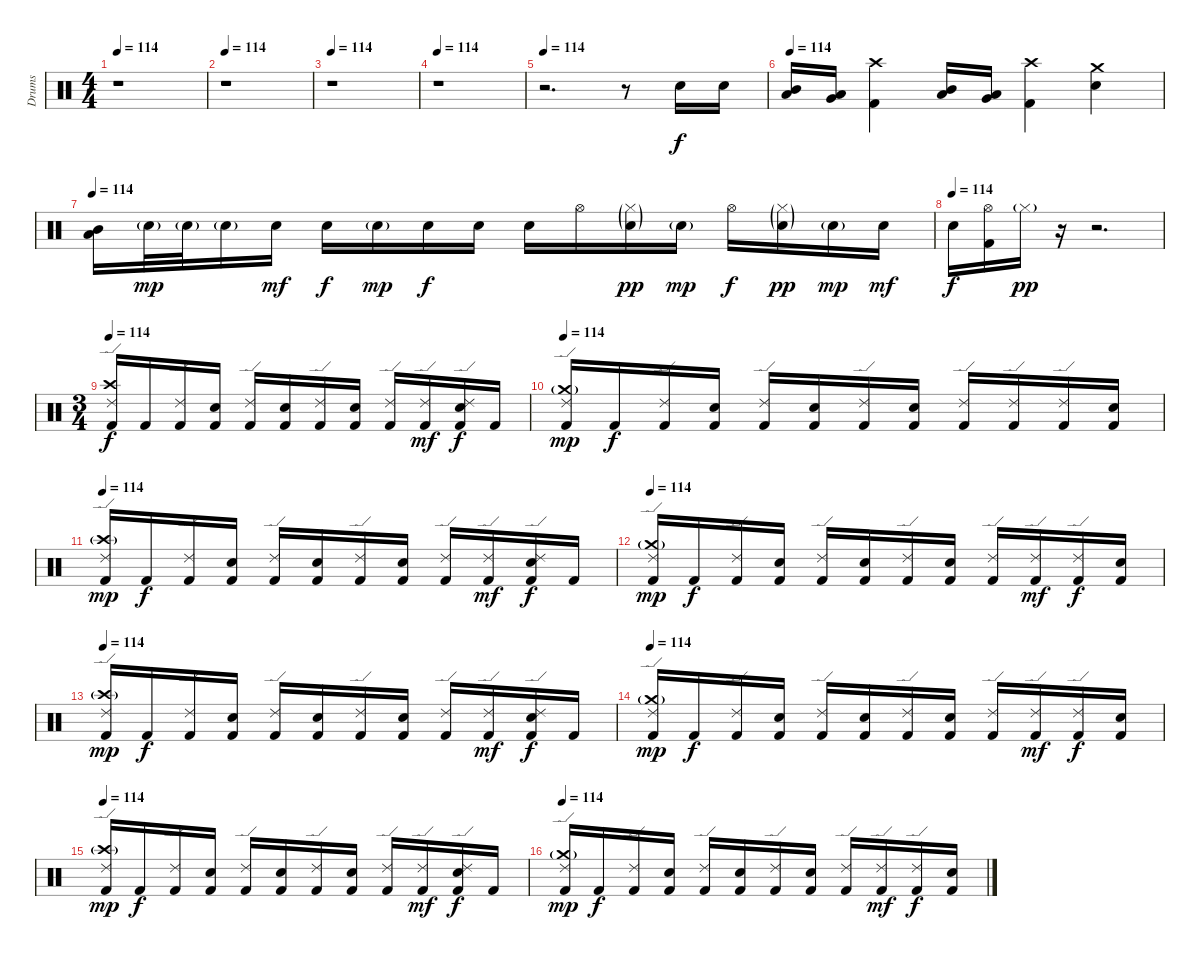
\track ("Drums" "Drums") {instrument percussion}
\staff {score}
\articulation defaults
\ts (4 4)
\tempo 114
\clef neutral
\ks c
r.1{dy f} |
\tempo 114
r.1 |
\tempo 114
r.1 |
\tempo 114
r.1 |
\tempo 114
r.2{d} r.8 "Electric Snare (hit)".16 "Electric Snare (hit)".16 |
\tempo 114
("Mid Tom (hit)" "Low Tom (hit)").16 ("Low Tom (hit)" "Very Low Tom (hit)").16 ("Kick (hit) 2" "Crash high (hit)").4 ("Mid Tom (hit)" "Low Tom (hit)").16 ("Low Tom (hit)" "Very Low Tom (hit)").16 ("Kick (hit) 2" "Crash high (hit)").4 ("Electric Snare (hit)" "Crash medium (hit)").4 |
\tempo 114
("Mid Tom (hit)" "Low Tom (hit)").16 "Electric Snare (hit)"{g}.32{dy mp} "Electric Snare (hit)"{g}.32 "Electric Snare (hit)"{g}.16 "Electric Snare (hit)".16{dy mf} "Electric Snare (hit)".16{dy f} "Electric Snare (hit)"{g}.16{dy mp} "Electric Snare (hit)".16{dy f} "Electric Snare (hit)".16 "Electric Snare (hit)".16 "Hi-Hat (open)".16 ("Electric Snare (hit)"{g} "Hi-Hat (closed)"{g}).16{dy pp} "Electric Snare (hit)"{g}.16{dy mp} "Hi-Hat (open)".16{dy f} ("Electric Snare (hit)"{g} "Hi-Hat (closed)"{g}).16{dy pp} "Electric Snare (hit)"{g}.16{dy mp} "Electric Snare (hit)".16{dy mf} |
\tempo (114)
"Electric Snare (hit)".16{dy f} ("Kick (hit) 2" "Hi-Hat (open)").16 "Hi-Hat (closed)"{g}.16{dy pp} r.16 r.2{d} |
\ts (3 4)
\tempo 114
("Kick (hit) 2" "Ride (edge) 2" "Crash high (hit)").16{dy f} "Kick (hit) 2".16 ("Kick (hit) 2" "Ride (edge) 2").16 ("Kick (hit) 2" "Electric Snare (hit)").16 ("Kick (hit) 2" "Ride (edge) 2").16 ("Kick (hit) 2" "Electric Snare (hit)").16 ("Kick (hit) 2" "Ride (edge) 2").16 ("Kick (hit) 2" "Electric Snare (hit)").16 ("Kick (hit) 2" "Ride (edge) 2").16 ("Kick (hit) 2" "Ride (edge) 2").16{dy mf} ("Kick (hit) 2" "Electric Snare (hit)" "Ride (edge) 2").16{dy f} "Kick (hit) 2".16 |
\tempo 114
("Kick (hit) 2" "Ride (edge) 2" "Crash medium (hit)"{g}).16{dy mp} "Kick (hit) 2".16{dy f} ("Kick (hit) 2" "Ride (edge) 2").16 ("Kick (hit) 2" "Electric Snare (hit)").16 ("Kick (hit) 2" "Ride (edge) 2").16 ("Kick (hit) 2" "Electric Snare (hit)").16 ("Kick (hit) 2" "Ride (edge) 2").16 ("Kick (hit) 2" "Electric Snare (hit)").16 ("Kick (hit) 2" "Ride (edge) 2").16 ("Kick (hit) 2" "Ride (edge) 2").16 ("Kick (hit) 2" "Ride (edge) 2").16 ("Kick (hit) 2" "Electric Snare (hit)").16 |
\tempo 114
("Kick (hit) 2" "Ride (edge) 2" "Crash high (hit)"{g}).16{dy mp} "Kick (hit) 2".16{dy f} ("Kick (hit) 2" "Ride (edge) 2").16 ("Kick (hit) 2" "Electric Snare (hit)").16 ("Kick (hit) 2" "Ride (edge) 2").16 ("Kick (hit) 2" "Electric Snare (hit)").16 ("Kick (hit) 2" "Ride (edge) 2").16 ("Kick (hit) 2" "Electric Snare (hit)").16 ("Kick (hit) 2" "Ride (edge) 2").16 ("Kick (hit) 2" "Ride (edge) 2").16{dy mf} ("Kick (hit) 2" "Electric Snare (hit)" "Ride (edge) 2").16{dy f} "Kick (hit) 2".16 |
\tempo 114
("Kick (hit) 2" "Ride (edge) 2" "Crash medium (hit)"{g}).16{dy mp} "Kick (hit) 2".16{dy f} ("Kick (hit) 2" "Ride (edge) 2").16 ("Kick (hit) 2" "Electric Snare (hit)").16 ("Kick (hit) 2" "Ride (edge) 2").16 ("Kick (hit) 2" "Electric Snare (hit)").16 ("Kick (hit) 2" "Ride (edge) 2").16 ("Kick (hit) 2" "Electric Snare (hit)").16 ("Kick (hit) 2" "Ride (edge) 2").16 ("Kick (hit) 2" "Ride (edge) 2").16{dy mf} ("Kick (hit) 2" "Ride (edge) 2").16{dy f} ("Kick (hit) 2" "Electric Snare (hit)").16 |
\tempo 114
("Kick (hit) 2" "Ride (edge) 2" "Crash high (hit)"{g}).16{dy mp} "Kick (hit) 2".16{dy f} ("Kick (hit) 2" "Ride (edge) 2").16 ("Kick (hit) 2" "Electric Snare (hit)").16 ("Kick (hit) 2" "Ride (edge) 2").16 ("Kick (hit) 2" "Electric Snare (hit)").16 ("Kick (hit) 2" "Ride (edge) 2").16 ("Kick (hit) 2" "Electric Snare (hit)").16 ("Kick (hit) 2" "Ride (edge) 2").16 ("Kick (hit) 2" "Ride (edge) 2").16{dy mf} ("Kick (hit) 2" "Electric Snare (hit)" "Ride (edge) 2").16{dy f} "Kick (hit) 2".16 |
\tempo 114
("Kick (hit) 2" "Ride (edge) 2" "Crash medium (hit)"{g}).16{dy mp} "Kick (hit) 2".16{dy f} ("Kick (hit) 2" "Ride (edge) 2").16 ("Kick (hit) 2" "Electric Snare (hit)").16 ("Kick (hit) 2" "Ride (edge) 2").16 ("Kick (hit) 2" "Electric Snare (hit)").16 ("Kick (hit) 2" "Ride (edge) 2").16 ("Kick (hit) 2" "Electric Snare (hit)").16 ("Kick (hit) 2" "Ride (edge) 2").16 ("Kick (hit) 2" "Ride (edge) 2").16{dy mf} ("Kick (hit) 2" "Ride (edge) 2").16{dy f} ("Kick (hit) 2" "Electric Snare (hit)").16 |
\tempo 114
("Kick (hit) 2" "Ride (edge) 2" "Crash high (hit)"{g}).16{dy mp} "Kick (hit) 2".16{dy f} ("Kick (hit) 2" "Ride (edge) 2").16 ("Kick (hit) 2" "Electric Snare (hit)").16 ("Kick (hit) 2" "Ride (edge) 2").16 ("Kick (hit) 2" "Electric Snare (hit)").16 ("Kick (hit) 2" "Ride (edge) 2").16 ("Kick (hit) 2" "Electric Snare (hit)").16 ("Kick (hit) 2" "Ride (edge) 2").16 ("Kick (hit) 2" "Ride (edge) 2").16{dy mf} ("Kick (hit) 2" "Electric Snare (hit)" "Ride (edge) 2").16{dy f} "Kick (hit) 2".16 |
\tempo 114
("Kick (hit) 2" "Ride (edge) 2" "Crash medium (hit)"{g}).16{dy mp} "Kick (hit) 2".16{dy f} ("Kick (hit) 2" "Ride (edge) 2").16 ("Kick (hit) 2" "Electric Snare (hit)").16 ("Kick (hit) 2" "Ride (edge) 2").16 ("Kick (hit) 2" "Electric Snare (hit)").16 ("Kick (hit) 2" "Ride (edge) 2").16 ("Kick (hit) 2" "Electric Snare (hit)").16 ("Kick (hit) 2" "Ride (edge) 2").16 ("Kick (hit) 2" "Ride (edge) 2").16{dy mf} ("Kick (hit) 2" "Ride (edge) 2").16{dy f} ("Kick (hit) 2" "Electric Snare (hit)").16
